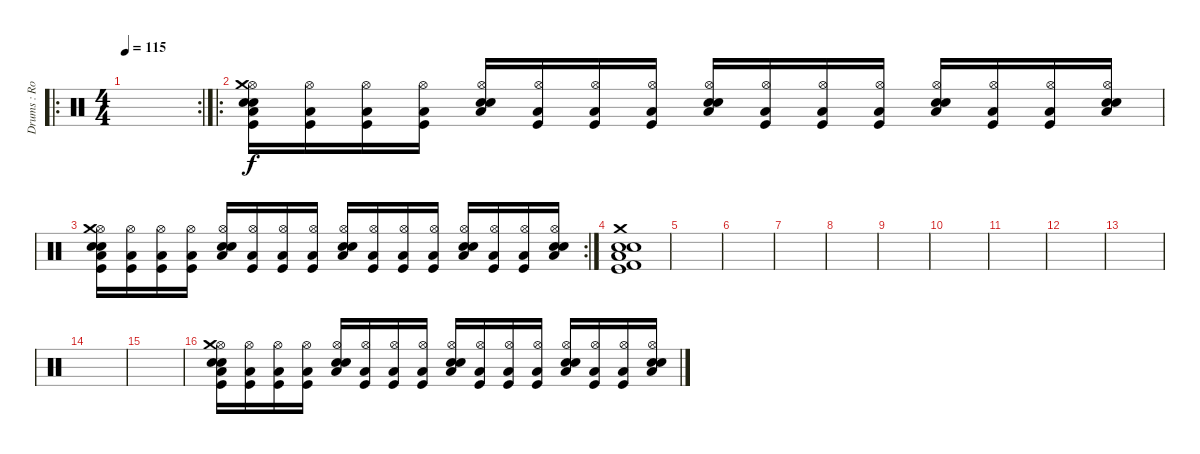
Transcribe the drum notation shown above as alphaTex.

\track ("Drums : Rob Kurth" "Drums : Ro") {instrument percussion}
\staff {score}
\articulation defaults
\ro
\rc 2
\ts (4 4)
\tempo 115
\clef neutral
\ks c
|
\ro
("Low Floor Tom (hit)" "Hi-Hat (open)" "Electric Snare (hit)" "Kick (hit)" "Snare (hit) 2" "Crash medium (hit)").16 ("Low Floor Tom (hit)" "Hi-Hat (open)" "Kick (hit)").16 ("Low Floor Tom (hit)" "Hi-Hat (open)" "Kick (hit)").16 ("Low Floor Tom (hit)" "Hi-Hat (open)" "Kick (hit)").16 ("Low Floor Tom (hit)" "Hi-Hat (open)" "Electric Snare (hit)" "Snare (hit) 2").16 ("Low Floor Tom (hit)" "Hi-Hat (open)" "Kick (hit)").16 ("Low Floor Tom (hit)" "Hi-Hat (open)" "Kick (hit)").16 ("Low Floor Tom (hit)" "Hi-Hat (open)" "Kick (hit)").16 ("Low Floor Tom (hit)" "Hi-Hat (open)" "Electric Snare (hit)" "Snare (hit) 2").16 ("Low Floor Tom (hit)" "Hi-Hat (open)" "Kick (hit)").16 ("Low Floor Tom (hit)" "Hi-Hat (open)" "Kick (hit)").16 ("Low Floor Tom (hit)" "Hi-Hat (open)" "Kick (hit)").16 ("Low Floor Tom (hit)" "Hi-Hat (open)" "Electric Snare (hit)" "Snare (hit) 2").16 ("Low Floor Tom (hit)" "Hi-Hat (open)" "Kick (hit)").16 ("Low Floor Tom (hit)" "Hi-Hat (open)" "Kick (hit)").16 ("Low Floor Tom (hit)" "Hi-Hat (open)" "Electric Snare (hit)" "Snare (hit) 2").16 |
\rc 2
("Low Floor Tom (hit)" "Hi-Hat (open)" "Electric Snare (hit)" "Kick (hit)" "Snare (hit) 2" "Crash medium (hit)").16 ("Low Floor Tom (hit)" "Hi-Hat (open)" "Kick (hit)").16 ("Low Floor Tom (hit)" "Hi-Hat (open)" "Kick (hit)").16 ("Low Floor Tom (hit)" "Hi-Hat (open)" "Kick (hit)").16 ("Low Floor Tom (hit)" "Hi-Hat (open)" "Electric Snare (hit)" "Snare (hit) 2").16 ("Low Floor Tom (hit)" "Hi-Hat (open)" "Kick (hit)").16 ("Low Floor Tom (hit)" "Hi-Hat (open)" "Kick (hit)").16 ("Low Floor Tom (hit)" "Hi-Hat (open)" "Kick (hit)").16 ("Low Floor Tom (hit)" "Hi-Hat (open)" "Electric Snare (hit)" "Snare (hit) 2").16 ("Low Floor Tom (hit)" "Hi-Hat (open)" "Kick (hit)").16 ("Low Floor Tom (hit)" "Hi-Hat (open)" "Kick (hit)").16 ("Low Floor Tom (hit)" "Hi-Hat (open)" "Kick (hit)").16 ("Low Floor Tom (hit)" "Hi-Hat (open)" "Electric Snare (hit)" "Snare (hit) 2").16 ("Low Floor Tom (hit)" "Hi-Hat (open)" "Kick (hit)").16 ("Low Floor Tom (hit)" "Hi-Hat (open)" "Kick (hit)").16 ("Low Floor Tom (hit)" "Hi-Hat (open)" "Electric Snare (hit)" "Snare (hit) 2").16 |
("Low Floor Tom (hit)" "Kick (hit) 2" "Electric Snare (hit)" "Kick (hit)" "Snare (hit) 2" "Crash medium (hit)").1 |
|
|
|
|
|
|
|
|
|
|
|
("Low Floor Tom (hit)" "Hi-Hat (open)" "Electric Snare (hit)" "Kick (hit)" "Snare (hit) 2" "Crash medium (hit)").16 ("Low Floor Tom (hit)" "Hi-Hat (open)" "Kick (hit)").16 ("Low Floor Tom (hit)" "Hi-Hat (open)" "Kick (hit)").16 ("Low Floor Tom (hit)" "Hi-Hat (open)" "Kick (hit)").16 ("Low Floor Tom (hit)" "Hi-Hat (open)" "Electric Snare (hit)" "Snare (hit) 2").16 ("Low Floor Tom (hit)" "Hi-Hat (open)" "Kick (hit)").16 ("Low Floor Tom (hit)" "Hi-Hat (open)" "Kick (hit)").16 ("Low Floor Tom (hit)" "Hi-Hat (open)" "Kick (hit)").16 ("Low Floor Tom (hit)" "Hi-Hat (open)" "Electric Snare (hit)" "Snare (hit) 2").16 ("Low Floor Tom (hit)" "Hi-Hat (open)" "Kick (hit)").16 ("Low Floor Tom (hit)" "Hi-Hat (open)" "Kick (hit)").16 ("Low Floor Tom (hit)" "Hi-Hat (open)" "Kick (hit)").16 ("Low Floor Tom (hit)" "Hi-Hat (open)" "Electric Snare (hit)" "Snare (hit) 2").16 ("Low Floor Tom (hit)" "Hi-Hat (open)" "Kick (hit)").16 ("Low Floor Tom (hit)" "Hi-Hat (open)" "Kick (hit)").16 ("Low Floor Tom (hit)" "Hi-Hat (open)" "Electric Snare (hit)" "Snare (hit) 2").16
